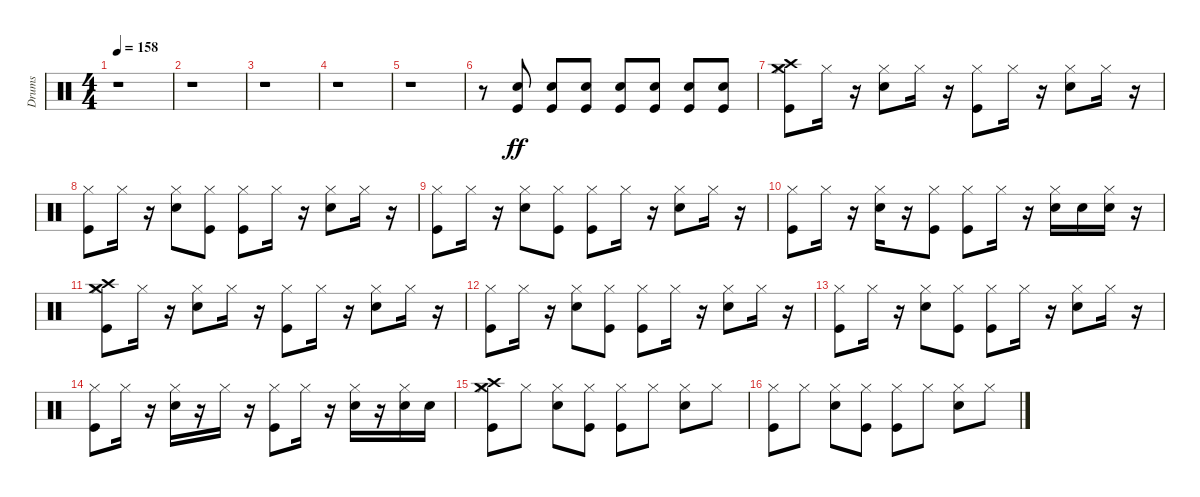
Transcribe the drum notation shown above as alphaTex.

\track ("Drums" "Drums") {instrument percussion}
\staff {score}
\articulation defaults
\ts (4 4)
\tempo 158
\clef neutral
\ks c
r.1{dy ff} |
r.1 |
r.1 |
r.1 |
r.1 |
r.8 ("Kick (hit)" "Snare (hit) 2").8 ("Kick (hit)" "Snare (hit) 2").8 ("Kick (hit)" "Snare (hit) 2").8 ("Kick (hit)" "Snare (hit) 2").8 ("Kick (hit)" "Snare (hit) 2").8 ("Kick (hit)" "Snare (hit) 2").8 ("Kick (hit)" "Snare (hit) 2").8 |
("Hi-Hat (closed)" "Kick (hit)" "Crash medium (hit)" "Crash high (hit)").8 "Hi-Hat (closed)".16 r.16 ("Hi-Hat (closed)" "Snare (hit) 2").8 "Hi-Hat (closed)".16 r.16 ("Hi-Hat (closed)" "Kick (hit)").8 "Hi-Hat (closed)".16 r.16 ("Hi-Hat (closed)" "Snare (hit) 2").8 "Hi-Hat (closed)".16 r.16 |
("Hi-Hat (closed)" "Kick (hit)").8 "Hi-Hat (closed)".16 r.16 ("Hi-Hat (closed)" "Snare (hit) 2").8 ("Hi-Hat (closed)" "Kick (hit)").8 ("Hi-Hat (closed)" "Kick (hit)").8 "Hi-Hat (closed)".16 r.16 ("Hi-Hat (closed)" "Snare (hit) 2").8 "Hi-Hat (closed)".16 r.16 |
("Hi-Hat (closed)" "Kick (hit)").8 "Hi-Hat (closed)".16 r.16 ("Hi-Hat (closed)" "Snare (hit) 2").8 ("Kick (hit)" "Hi-Hat (closed)").8 ("Kick (hit)" "Hi-Hat (closed)").8 "Hi-Hat (closed)".16 r.16 ("Hi-Hat (closed)" "Snare (hit) 2").8 "Hi-Hat (closed)".16 r.16 |
("Hi-Hat (closed)" "Kick (hit)").8 "Hi-Hat (closed)".16 r.16 ("Hi-Hat (closed)" "Snare (hit) 2").16 r.16 ("Kick (hit)" "Hi-Hat (closed)").8 ("Hi-Hat (closed)" "Kick (hit)").8 "Hi-Hat (closed)".16 r.16 ("Snare (hit) 2" "Hi-Hat (closed)").16 "Snare (hit) 2".16 ("Hi-Hat (closed)" "Snare (hit) 2").16 r.16 |
("Crash medium (hit)" "Hi-Hat (closed)" "Kick (hit)" "Crash high (hit)").8 "Hi-Hat (closed)".16 r.16 ("Snare (hit) 2" "Hi-Hat (closed)").8 "Hi-Hat (closed)".16 r.16 ("Hi-Hat (closed)" "Kick (hit)").8 "Hi-Hat (closed)".16 r.16 ("Snare (hit) 2" "Hi-Hat (closed)").8 "Hi-Hat (closed)".16 r.16 |
("Hi-Hat (closed)" "Kick (hit)").8 "Hi-Hat (closed)".16 r.16 ("Snare (hit) 2" "Hi-Hat (closed)").8 ("Kick (hit)" "Hi-Hat (closed)").8 ("Hi-Hat (closed)" "Kick (hit)").8 "Hi-Hat (closed)".16 r.16 ("Snare (hit) 2" "Hi-Hat (closed)").8 "Hi-Hat (closed)".16 r.16 |
("Hi-Hat (closed)" "Kick (hit)").8 "Hi-Hat (closed)".16 r.16 ("Snare (hit) 2" "Hi-Hat (closed)").8 ("Hi-Hat (closed)" "Kick (hit)").8 ("Kick (hit)" "Hi-Hat (closed)").8 "Hi-Hat (closed)".16 r.16 ("Hi-Hat (closed)" "Snare (hit) 2").8 "Hi-Hat (closed)".16 r.16 |
("Hi-Hat (closed)" "Kick (hit)").8 "Hi-Hat (closed)".16 r.16 ("Snare (hit) 2" "Hi-Hat (closed)").16 r.16 "Hi-Hat (closed)".16 r.16 ("Hi-Hat (closed)" "Kick (hit)").8 "Hi-Hat (closed)".16 r.16 ("Snare (hit) 2" "Hi-Hat (closed)").16 r.16 ("Hi-Hat (closed)" "Snare (hit) 2").16 "Snare (hit) 2".16 |
("Crash medium (hit)" "Kick (hit)" "Hi-Hat (closed)" "Crash high (hit)").8 "Hi-Hat (closed)".8 ("Hi-Hat (closed)" "Snare (hit) 2").8 ("Kick (hit)" "Hi-Hat (closed)").8 ("Kick (hit)" "Hi-Hat (closed)").8 "Hi-Hat (closed)".8 ("Snare (hit) 2" "Hi-Hat (closed)").8 "Hi-Hat (closed)".8 |
("Kick (hit)" "Hi-Hat (closed)").8 "Hi-Hat (closed)".8 ("Snare (hit) 2" "Hi-Hat (closed)").8 ("Kick (hit)" "Hi-Hat (closed)").8 ("Kick (hit)" "Hi-Hat (closed)").8 "Hi-Hat (closed)".8 ("Snare (hit) 2" "Hi-Hat (closed)").8 "Hi-Hat (closed)".8
